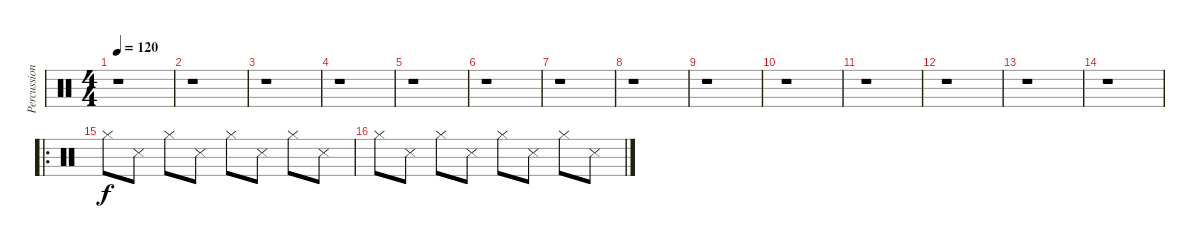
\track ("Percussion" "Percussion") {instrument percussion}
\staff {score}
\articulation defaults
\ts (4 4)
\tempo 120
\clef neutral
\ks c
r.1{dy f} |
r.1 |
r.1 |
r.1 |
r.1 |
r.1 |
r.1 |
r.1 |
r.1 |
r.1 |
r.1 |
r.1 |
r.1 |
r.1 |
\ro "Hi-Hat (closed)".8 "Snare (side stick) 3".8 "Hi-Hat (closed)".8 "Snare (side stick) 3".8 "Hi-Hat (closed)".8 "Snare (side stick) 3".8 "Hi-Hat (closed)".8 "Snare (side stick) 3".8
|
"Hi-Hat (closed)".8 "Snare (side stick) 3".8 "Hi-Hat (closed)".8 "Snare (side stick) 3".8 "Hi-Hat (closed)".8 "Snare (side stick) 3".8 "Hi-Hat (closed)".8 "Snare (side stick) 3".8
